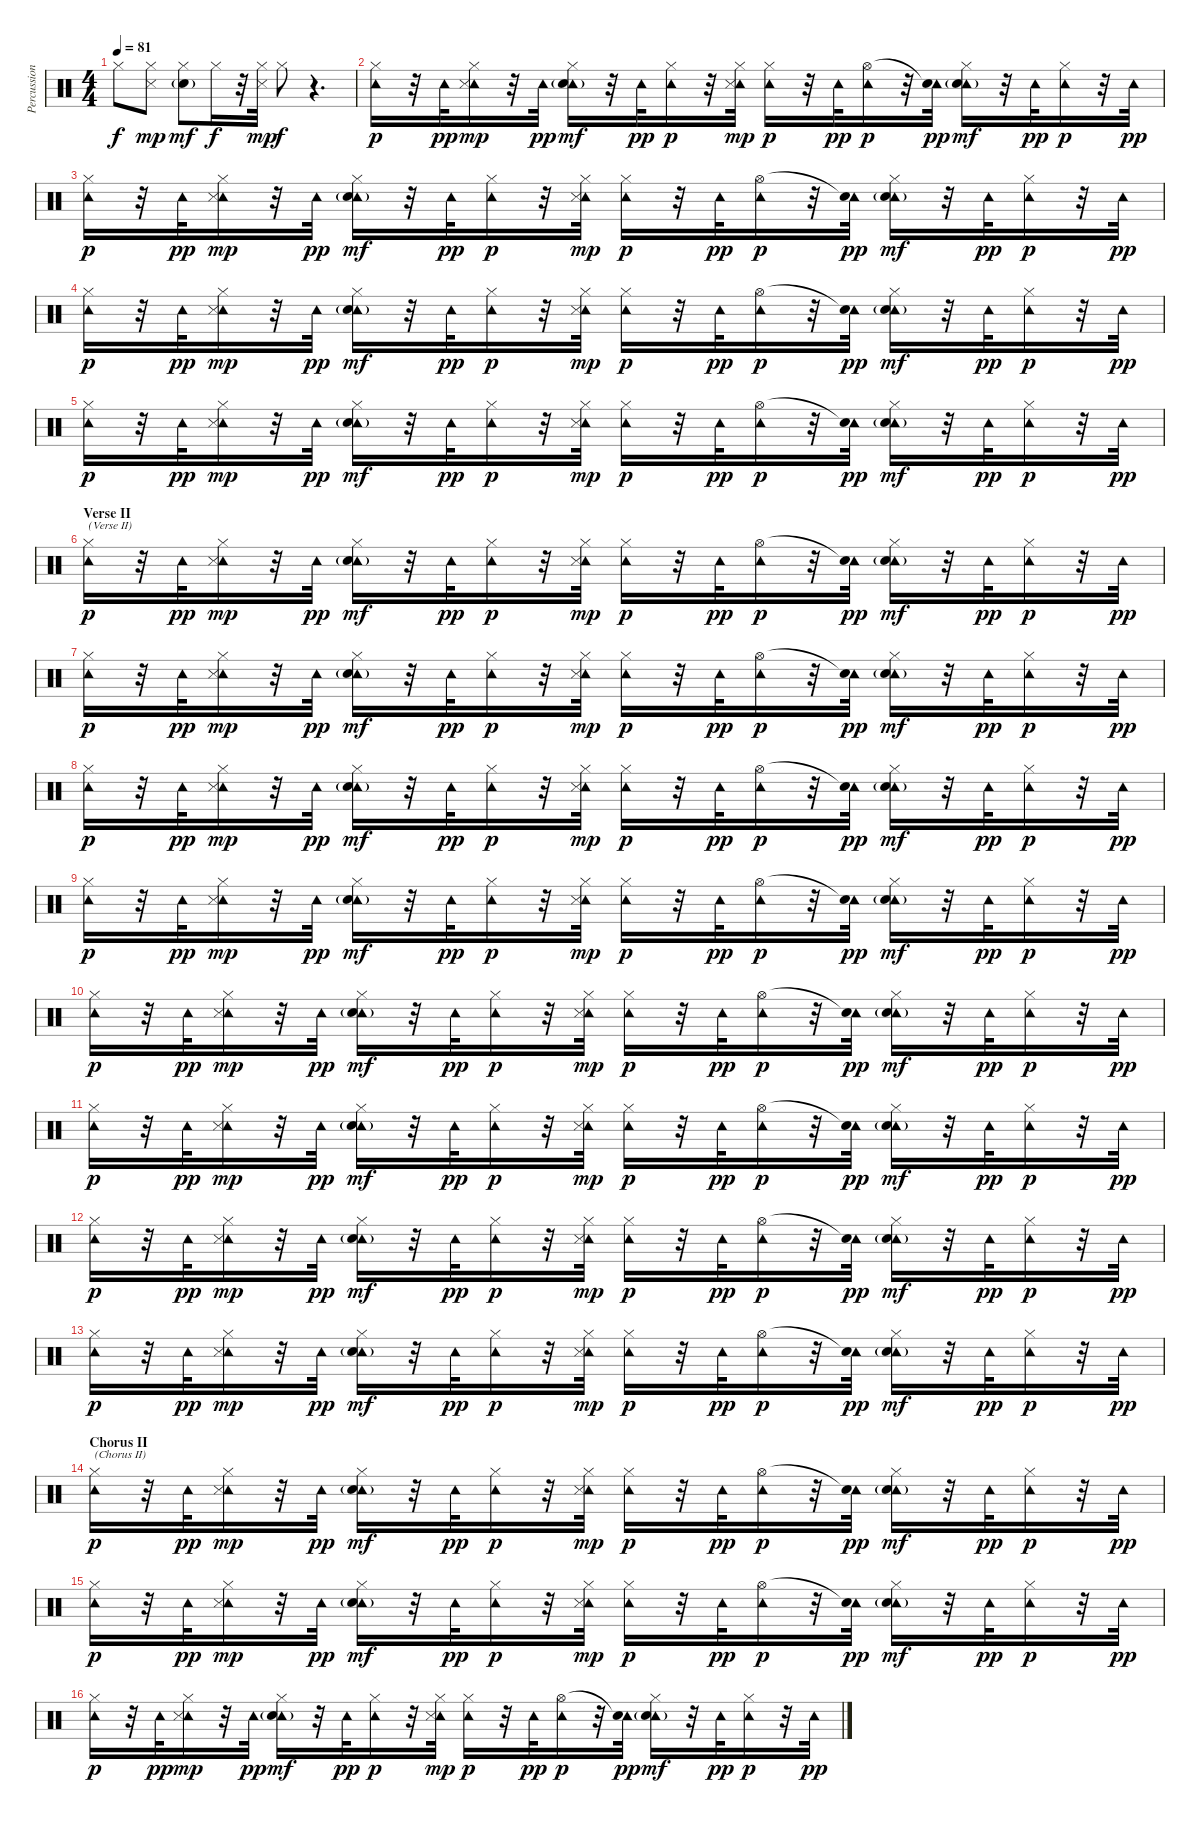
\track ("Percussion" "Percussion") {instrument percussion}
\staff {score}
\articulation defaults
\ts (4 4)
\tempo 81
\clef neutral
\ks c "Hi-Hat (closed)".8{dy f}
("Hi-Hat (closed)" "Snare (side stick) 3").8{dy mp} ("Hi-Hat (closed)" "Snare (hit) 2"{g}).8{dy mf} "Hi-Hat (closed)".16{dy f} r.32 ("Hi-Hat (closed)" "Snare (side stick) 3").32{dy mp} "Hi-Hat (closed)".8{dy f} r.4{d} |
("Tambourine (hit)" "Hi-Hat (closed)").16{dy p} r.32 "Tambourine (hit)".32{dy pp} ("Tambourine (hit)" "Hi-Hat (closed)" "Snare (side stick) 3").16{dy mp} r.32 "Tambourine (hit)".32{dy pp} ("Tambourine (hit)" "Hi-Hat (closed)" "Snare (hit) 2"{g}).16{dy mf} r.32 "Tambourine (hit)".32{dy pp} ("Tambourine (hit)" "Hi-Hat (closed)").16{dy p} r.32 ("Tambourine (hit)" "Hi-Hat (closed)" "Snare (side stick) 3").32{dy mp} ("Tambourine (hit)" "Hi-Hat (closed)").16{dy p} r.32 "Tambourine (hit)".32{dy pp} ("Tambourine (hit)" "Hi-Hat (open)").16{dy p} r.32 ("Tambourine (hit)" "Snare (hit)"{t}).32{dy pp} ("Tambourine (hit)" "Hi-Hat (closed)" "Snare (hit) 2"{g}).16{dy mf} r.32 "Tambourine (hit)".32{dy pp} ("Tambourine (hit)" "Hi-Hat (closed)").16{dy p} r.32 "Tambourine (hit)".32{dy pp} |
("Tambourine (hit)" "Hi-Hat (closed)").16{dy p} r.32 "Tambourine (hit)".32{dy pp} ("Tambourine (hit)" "Hi-Hat (closed)" "Snare (side stick) 3").16{dy mp} r.32 "Tambourine (hit)".32{dy pp} ("Tambourine (hit)" "Hi-Hat (closed)" "Snare (hit) 2"{g}).16{dy mf} r.32 "Tambourine (hit)".32{dy pp} ("Tambourine (hit)" "Hi-Hat (closed)").16{dy p} r.32 ("Tambourine (hit)" "Hi-Hat (closed)" "Snare (side stick) 3").32{dy mp} ("Tambourine (hit)" "Hi-Hat (closed)").16{dy p} r.32 "Tambourine (hit)".32{dy pp} ("Tambourine (hit)" "Hi-Hat (open)").16{dy p} r.32 ("Tambourine (hit)" "Snare (hit)"{t}).32{dy pp} ("Tambourine (hit)" "Hi-Hat (closed)" "Snare (hit) 2"{g}).16{dy mf} r.32 "Tambourine (hit)".32{dy pp} ("Tambourine (hit)" "Hi-Hat (closed)").16{dy p} r.32 "Tambourine (hit)".32{dy pp} |
("Tambourine (hit)" "Hi-Hat (closed)").16{dy p} r.32 "Tambourine (hit)".32{dy pp} ("Tambourine (hit)" "Hi-Hat (closed)" "Snare (side stick) 3").16{dy mp} r.32 "Tambourine (hit)".32{dy pp} ("Tambourine (hit)" "Hi-Hat (closed)" "Snare (hit) 2"{g}).16{dy mf} r.32 "Tambourine (hit)".32{dy pp} ("Tambourine (hit)" "Hi-Hat (closed)").16{dy p} r.32 ("Tambourine (hit)" "Hi-Hat (closed)" "Snare (side stick) 3").32{dy mp} ("Tambourine (hit)" "Hi-Hat (closed)").16{dy p} r.32 "Tambourine (hit)".32{dy pp} ("Tambourine (hit)" "Hi-Hat (open)").16{dy p} r.32 ("Tambourine (hit)" "Snare (hit)"{t}).32{dy pp} ("Tambourine (hit)" "Hi-Hat (closed)" "Snare (hit) 2"{g}).16{dy mf} r.32 "Tambourine (hit)".32{dy pp} ("Tambourine (hit)" "Hi-Hat (closed)").16{dy p} r.32 "Tambourine (hit)".32{dy pp} |
("Tambourine (hit)" "Hi-Hat (closed)").16{dy p} r.32 "Tambourine (hit)".32{dy pp} ("Tambourine (hit)" "Hi-Hat (closed)" "Snare (side stick) 3").16{dy mp} r.32 "Tambourine (hit)".32{dy pp} ("Tambourine (hit)" "Hi-Hat (closed)" "Snare (hit) 2"{g}).16{dy mf} r.32 "Tambourine (hit)".32{dy pp} ("Tambourine (hit)" "Hi-Hat (closed)").16{dy p} r.32 ("Tambourine (hit)" "Hi-Hat (closed)" "Snare (side stick) 3").32{dy mp} ("Tambourine (hit)" "Hi-Hat (closed)").16{dy p} r.32 "Tambourine (hit)".32{dy pp} ("Tambourine (hit)" "Hi-Hat (open)").16{dy p} r.32 ("Tambourine (hit)" "Snare (hit)"{t}).32{dy pp} ("Tambourine (hit)" "Hi-Hat (closed)" "Snare (hit) 2"{g}).16{dy mf} r.32 "Tambourine (hit)".32{dy pp} ("Tambourine (hit)" "Hi-Hat (closed)").16{dy p} r.32 "Tambourine (hit)".32{dy pp} |
\section ("" "Verse II")
("Tambourine (hit)" "Hi-Hat (closed)").16{txt "(Verse II)" dy p} r.32 "Tambourine (hit)".32{dy pp} ("Tambourine (hit)" "Hi-Hat (closed)" "Snare (side stick) 3").16{dy mp} r.32 "Tambourine (hit)".32{dy pp} ("Tambourine (hit)" "Hi-Hat (closed)" "Snare (hit) 2"{g}).16{dy mf} r.32 "Tambourine (hit)".32{dy pp} ("Tambourine (hit)" "Hi-Hat (closed)").16{dy p} r.32 ("Tambourine (hit)" "Hi-Hat (closed)" "Snare (side stick) 3").32{dy mp} ("Tambourine (hit)" "Hi-Hat (closed)").16{dy p} r.32 "Tambourine (hit)".32{dy pp} ("Tambourine (hit)" "Hi-Hat (open)").16{dy p} r.32 ("Tambourine (hit)" "Snare (hit)"{t}).32{dy pp} ("Tambourine (hit)" "Hi-Hat (closed)" "Snare (hit) 2"{g}).16{dy mf} r.32 "Tambourine (hit)".32{dy pp} ("Tambourine (hit)" "Hi-Hat (closed)").16{dy p} r.32 "Tambourine (hit)".32{dy pp} |
("Tambourine (hit)" "Hi-Hat (closed)").16{dy p} r.32 "Tambourine (hit)".32{dy pp} ("Tambourine (hit)" "Hi-Hat (closed)" "Snare (side stick) 3").16{dy mp} r.32 "Tambourine (hit)".32{dy pp} ("Tambourine (hit)" "Hi-Hat (closed)" "Snare (hit) 2"{g}).16{dy mf} r.32 "Tambourine (hit)".32{dy pp} ("Tambourine (hit)" "Hi-Hat (closed)").16{dy p} r.32 ("Tambourine (hit)" "Hi-Hat (closed)" "Snare (side stick) 3").32{dy mp} ("Tambourine (hit)" "Hi-Hat (closed)").16{dy p} r.32 "Tambourine (hit)".32{dy pp} ("Tambourine (hit)" "Hi-Hat (open)").16{dy p} r.32 ("Tambourine (hit)" "Snare (hit)"{t}).32{dy pp} ("Tambourine (hit)" "Hi-Hat (closed)" "Snare (hit) 2"{g}).16{dy mf} r.32 "Tambourine (hit)".32{dy pp} ("Tambourine (hit)" "Hi-Hat (closed)").16{dy p} r.32 "Tambourine (hit)".32{dy pp} |
("Tambourine (hit)" "Hi-Hat (closed)").16{dy p} r.32 "Tambourine (hit)".32{dy pp} ("Tambourine (hit)" "Hi-Hat (closed)" "Snare (side stick) 3").16{dy mp} r.32 "Tambourine (hit)".32{dy pp} ("Tambourine (hit)" "Hi-Hat (closed)" "Snare (hit) 2"{g}).16{dy mf} r.32 "Tambourine (hit)".32{dy pp} ("Tambourine (hit)" "Hi-Hat (closed)").16{dy p} r.32 ("Tambourine (hit)" "Hi-Hat (closed)" "Snare (side stick) 3").32{dy mp} ("Tambourine (hit)" "Hi-Hat (closed)").16{dy p} r.32 "Tambourine (hit)".32{dy pp} ("Tambourine (hit)" "Hi-Hat (open)").16{dy p} r.32 ("Tambourine (hit)" "Snare (hit)"{t}).32{dy pp} ("Tambourine (hit)" "Hi-Hat (closed)" "Snare (hit) 2"{g}).16{dy mf} r.32 "Tambourine (hit)".32{dy pp} ("Tambourine (hit)" "Hi-Hat (closed)").16{dy p} r.32 "Tambourine (hit)".32{dy pp} |
("Tambourine (hit)" "Hi-Hat (closed)").16{dy p} r.32 "Tambourine (hit)".32{dy pp} ("Tambourine (hit)" "Hi-Hat (closed)" "Snare (side stick) 3").16{dy mp} r.32 "Tambourine (hit)".32{dy pp} ("Tambourine (hit)" "Hi-Hat (closed)" "Snare (hit) 2"{g}).16{dy mf} r.32 "Tambourine (hit)".32{dy pp} ("Tambourine (hit)" "Hi-Hat (closed)").16{dy p} r.32 ("Tambourine (hit)" "Hi-Hat (closed)" "Snare (side stick) 3").32{dy mp} ("Tambourine (hit)" "Hi-Hat (closed)").16{dy p} r.32 "Tambourine (hit)".32{dy pp} ("Tambourine (hit)" "Hi-Hat (open)").16{dy p} r.32 ("Tambourine (hit)" "Snare (hit)"{t}).32{dy pp} ("Tambourine (hit)" "Hi-Hat (closed)" "Snare (hit) 2"{g}).16{dy mf} r.32 "Tambourine (hit)".32{dy pp} ("Tambourine (hit)" "Hi-Hat (closed)").16{dy p} r.32 "Tambourine (hit)".32{dy pp} |
("Tambourine (hit)" "Hi-Hat (closed)").16{dy p} r.32 "Tambourine (hit)".32{dy pp} ("Tambourine (hit)" "Hi-Hat (closed)" "Snare (side stick) 3").16{dy mp} r.32 "Tambourine (hit)".32{dy pp} ("Tambourine (hit)" "Hi-Hat (closed)" "Snare (hit) 2"{g}).16{dy mf} r.32 "Tambourine (hit)".32{dy pp} ("Tambourine (hit)" "Hi-Hat (closed)").16{dy p} r.32 ("Tambourine (hit)" "Hi-Hat (closed)" "Snare (side stick) 3").32{dy mp} ("Tambourine (hit)" "Hi-Hat (closed)").16{dy p} r.32 "Tambourine (hit)".32{dy pp} ("Tambourine (hit)" "Hi-Hat (open)").16{dy p} r.32 ("Tambourine (hit)" "Snare (hit)"{t}).32{dy pp} ("Tambourine (hit)" "Hi-Hat (closed)" "Snare (hit) 2"{g}).16{dy mf} r.32 "Tambourine (hit)".32{dy pp} ("Tambourine (hit)" "Hi-Hat (closed)").16{dy p} r.32 "Tambourine (hit)".32{dy pp} |
("Tambourine (hit)" "Hi-Hat (closed)").16{dy p} r.32 "Tambourine (hit)".32{dy pp} ("Tambourine (hit)" "Hi-Hat (closed)" "Snare (side stick) 3").16{dy mp} r.32 "Tambourine (hit)".32{dy pp} ("Tambourine (hit)" "Hi-Hat (closed)" "Snare (hit) 2"{g}).16{dy mf} r.32 "Tambourine (hit)".32{dy pp} ("Tambourine (hit)" "Hi-Hat (closed)").16{dy p} r.32 ("Tambourine (hit)" "Hi-Hat (closed)" "Snare (side stick) 3").32{dy mp} ("Tambourine (hit)" "Hi-Hat (closed)").16{dy p} r.32 "Tambourine (hit)".32{dy pp} ("Tambourine (hit)" "Hi-Hat (open)").16{dy p} r.32 ("Tambourine (hit)" "Snare (hit)"{t}).32{dy pp} ("Tambourine (hit)" "Hi-Hat (closed)" "Snare (hit) 2"{g}).16{dy mf} r.32 "Tambourine (hit)".32{dy pp} ("Tambourine (hit)" "Hi-Hat (closed)").16{dy p} r.32 "Tambourine (hit)".32{dy pp} |
("Tambourine (hit)" "Hi-Hat (closed)").16{dy p} r.32 "Tambourine (hit)".32{dy pp} ("Tambourine (hit)" "Hi-Hat (closed)" "Snare (side stick) 3").16{dy mp} r.32 "Tambourine (hit)".32{dy pp} ("Tambourine (hit)" "Hi-Hat (closed)" "Snare (hit) 2"{g}).16{dy mf} r.32 "Tambourine (hit)".32{dy pp} ("Tambourine (hit)" "Hi-Hat (closed)").16{dy p} r.32 ("Tambourine (hit)" "Hi-Hat (closed)" "Snare (side stick) 3").32{dy mp} ("Tambourine (hit)" "Hi-Hat (closed)").16{dy p} r.32 "Tambourine (hit)".32{dy pp} ("Tambourine (hit)" "Hi-Hat (open)").16{dy p} r.32 ("Tambourine (hit)" "Snare (hit)"{t}).32{dy pp} ("Tambourine (hit)" "Hi-Hat (closed)" "Snare (hit) 2"{g}).16{dy mf} r.32 "Tambourine (hit)".32{dy pp} ("Tambourine (hit)" "Hi-Hat (closed)").16{dy p} r.32 "Tambourine (hit)".32{dy pp} |
("Tambourine (hit)" "Hi-Hat (closed)").16{dy p} r.32 "Tambourine (hit)".32{dy pp} ("Tambourine (hit)" "Hi-Hat (closed)" "Snare (side stick) 3").16{dy mp} r.32 "Tambourine (hit)".32{dy pp} ("Tambourine (hit)" "Hi-Hat (closed)" "Snare (hit) 2"{g}).16{dy mf} r.32 "Tambourine (hit)".32{dy pp} ("Tambourine (hit)" "Hi-Hat (closed)").16{dy p} r.32 ("Tambourine (hit)" "Hi-Hat (closed)" "Snare (side stick) 3").32{dy mp} ("Tambourine (hit)" "Hi-Hat (closed)").16{dy p} r.32 "Tambourine (hit)".32{dy pp} ("Tambourine (hit)" "Hi-Hat (open)").16{dy p} r.32 ("Tambourine (hit)" "Snare (hit)"{t}).32{dy pp} ("Tambourine (hit)" "Hi-Hat (closed)" "Snare (hit) 2"{g}).16{dy mf} r.32 "Tambourine (hit)".32{dy pp} ("Tambourine (hit)" "Hi-Hat (closed)").16{dy p} r.32 "Tambourine (hit)".32{dy pp} |
\section ("" "Chorus II")
("Tambourine (hit)" "Hi-Hat (closed)").16{txt "(Chorus II)" dy p} r.32 "Tambourine (hit)".32{dy pp} ("Tambourine (hit)" "Hi-Hat (closed)" "Snare (side stick) 3").16{dy mp} r.32 "Tambourine (hit)".32{dy pp} ("Tambourine (hit)" "Hi-Hat (closed)" "Snare (hit) 2"{g}).16{dy mf} r.32 "Tambourine (hit)".32{dy pp} ("Tambourine (hit)" "Hi-Hat (closed)").16{dy p} r.32 ("Tambourine (hit)" "Hi-Hat (closed)" "Snare (side stick) 3").32{dy mp} ("Tambourine (hit)" "Hi-Hat (closed)").16{dy p} r.32 "Tambourine (hit)".32{dy pp} ("Tambourine (hit)" "Hi-Hat (open)").16{dy p} r.32 ("Tambourine (hit)" "Snare (hit)"{t}).32{dy pp} ("Tambourine (hit)" "Hi-Hat (closed)" "Snare (hit) 2"{g}).16{dy mf} r.32 "Tambourine (hit)".32{dy pp} ("Tambourine (hit)" "Hi-Hat (closed)").16{dy p} r.32 "Tambourine (hit)".32{dy pp} |
("Tambourine (hit)" "Hi-Hat (closed)").16{dy p} r.32 "Tambourine (hit)".32{dy pp} ("Tambourine (hit)" "Hi-Hat (closed)" "Snare (side stick) 3").16{dy mp} r.32 "Tambourine (hit)".32{dy pp} ("Tambourine (hit)" "Hi-Hat (closed)" "Snare (hit) 2"{g}).16{dy mf} r.32 "Tambourine (hit)".32{dy pp} ("Tambourine (hit)" "Hi-Hat (closed)").16{dy p} r.32 ("Tambourine (hit)" "Hi-Hat (closed)" "Snare (side stick) 3").32{dy mp} ("Tambourine (hit)" "Hi-Hat (closed)").16{dy p} r.32 "Tambourine (hit)".32{dy pp} ("Tambourine (hit)" "Hi-Hat (open)").16{dy p} r.32 ("Tambourine (hit)" "Snare (hit)"{t}).32{dy pp} ("Tambourine (hit)" "Hi-Hat (closed)" "Snare (hit) 2"{g}).16{dy mf} r.32 "Tambourine (hit)".32{dy pp} ("Tambourine (hit)" "Hi-Hat (closed)").16{dy p} r.32 "Tambourine (hit)".32{dy pp} |
("Tambourine (hit)" "Hi-Hat (closed)").16{dy p} r.32 "Tambourine (hit)".32{dy pp} ("Tambourine (hit)" "Hi-Hat (closed)" "Snare (side stick) 3").16{dy mp} r.32 "Tambourine (hit)".32{dy pp} ("Tambourine (hit)" "Hi-Hat (closed)" "Snare (hit) 2"{g}).16{dy mf} r.32 "Tambourine (hit)".32{dy pp} ("Tambourine (hit)" "Hi-Hat (closed)").16{dy p} r.32 ("Tambourine (hit)" "Hi-Hat (closed)" "Snare (side stick) 3").32{dy mp} ("Tambourine (hit)" "Hi-Hat (closed)").16{dy p} r.32 "Tambourine (hit)".32{dy pp} ("Tambourine (hit)" "Hi-Hat (open)").16{dy p} r.32 ("Tambourine (hit)" "Snare (hit)"{t}).32{dy pp} ("Tambourine (hit)" "Hi-Hat (closed)" "Snare (hit) 2"{g}).16{dy mf} r.32 "Tambourine (hit)".32{dy pp} ("Tambourine (hit)" "Hi-Hat (closed)").16{dy p} r.32 "Tambourine (hit)".32{dy pp}
